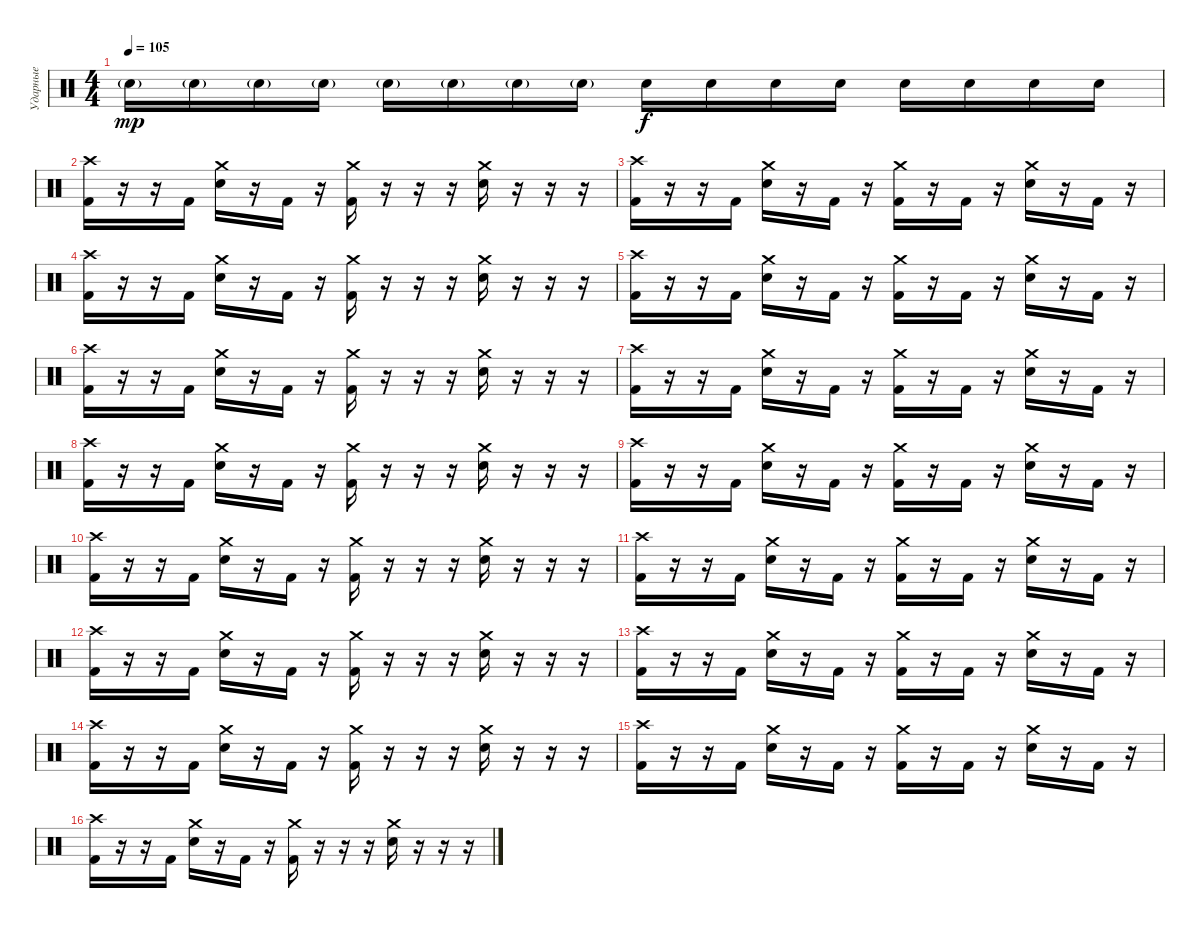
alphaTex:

\track ("Ударные" "Ударные") {instrument percussion}
\staff {score}
\articulation defaults
\ts (4 4)
\tempo 105
\clef neutral
\ks c "Electric Snare (hit)"{g}.16{dy mp} "Electric Snare (hit)"{g}.16 "Electric Snare (hit)"{g}.16 "Electric Snare (hit)"{g}.16 "Electric Snare (hit)"{g}.16 "Electric Snare (hit)"{g}.16 "Electric Snare (hit)"{g}.16 "Electric Snare (hit)"{g}.16 "Electric Snare (hit)".16{dy f} "Electric Snare (hit)".16 "Electric Snare (hit)".16 "Electric Snare (hit)".16 "Electric Snare (hit)".16 "Electric Snare (hit)".16 "Electric Snare (hit)".16 "Electric Snare (hit)".16
|
("Crash high (hit)" "Kick (hit) 2").16 r.16 r.16 "Kick (hit) 2".16 ("Crash medium (hit)" "Electric Snare (hit)").16 r.16 "Kick (hit) 2".16 r.16 ("Crash medium (hit)" "Kick (hit) 2").16 r.16 r.16 r.16 ("Crash medium (hit)" "Electric Snare (hit)").16 r.16 r.16 r.16 |
("Crash high (hit)" "Kick (hit) 2").16 r.16 r.16 "Kick (hit) 2".16 ("Crash medium (hit)" "Electric Snare (hit)").16 r.16 "Kick (hit) 2".16 r.16 ("Crash medium (hit)" "Kick (hit) 2").16 r.16 "Kick (hit) 2".16 r.16 ("Crash medium (hit)" "Electric Snare (hit)").16 r.16 "Kick (hit) 2".16 r.16 |
("Crash high (hit)" "Kick (hit) 2").16 r.16 r.16 "Kick (hit) 2".16 ("Crash medium (hit)" "Electric Snare (hit)").16 r.16 "Kick (hit) 2".16 r.16 ("Crash medium (hit)" "Kick (hit) 2").16 r.16 r.16 r.16 ("Crash medium (hit)" "Electric Snare (hit)").16 r.16 r.16 r.16 |
("Crash high (hit)" "Kick (hit) 2").16 r.16 r.16 "Kick (hit) 2".16 ("Crash medium (hit)" "Electric Snare (hit)").16 r.16 "Kick (hit) 2".16 r.16 ("Crash medium (hit)" "Kick (hit) 2").16 r.16 "Kick (hit) 2".16 r.16 ("Crash medium (hit)" "Electric Snare (hit)").16 r.16 "Kick (hit) 2".16 r.16 |
("Crash high (hit)" "Kick (hit) 2").16 r.16 r.16 "Kick (hit) 2".16 ("Crash medium (hit)" "Electric Snare (hit)").16 r.16 "Kick (hit) 2".16 r.16 ("Crash medium (hit)" "Kick (hit) 2").16 r.16 r.16 r.16 ("Crash medium (hit)" "Electric Snare (hit)").16 r.16 r.16 r.16 |
("Crash high (hit)" "Kick (hit) 2").16 r.16 r.16 "Kick (hit) 2".16 ("Crash medium (hit)" "Electric Snare (hit)").16 r.16 "Kick (hit) 2".16 r.16 ("Crash medium (hit)" "Kick (hit) 2").16 r.16 "Kick (hit) 2".16 r.16 ("Crash medium (hit)" "Electric Snare (hit)").16 r.16 "Kick (hit) 2".16 r.16 |
("Crash high (hit)" "Kick (hit) 2").16 r.16 r.16 "Kick (hit) 2".16 ("Crash medium (hit)" "Electric Snare (hit)").16 r.16 "Kick (hit) 2".16 r.16 ("Crash medium (hit)" "Kick (hit) 2").16 r.16 r.16 r.16 ("Crash medium (hit)" "Electric Snare (hit)").16 r.16 r.16 r.16 |
("Crash high (hit)" "Kick (hit) 2").16 r.16 r.16 "Kick (hit) 2".16 ("Crash medium (hit)" "Electric Snare (hit)").16 r.16 "Kick (hit) 2".16 r.16 ("Crash medium (hit)" "Kick (hit) 2").16 r.16 "Kick (hit) 2".16 r.16 ("Crash medium (hit)" "Electric Snare (hit)").16 r.16 "Kick (hit) 2".16 r.16 |
("Crash high (hit)" "Kick (hit) 2").16 r.16 r.16 "Kick (hit) 2".16 ("Crash medium (hit)" "Electric Snare (hit)").16 r.16 "Kick (hit) 2".16 r.16 ("Crash medium (hit)" "Kick (hit) 2").16 r.16 r.16 r.16 ("Crash medium (hit)" "Electric Snare (hit)").16 r.16 r.16 r.16 |
("Crash high (hit)" "Kick (hit) 2").16 r.16 r.16 "Kick (hit) 2".16 ("Crash medium (hit)" "Electric Snare (hit)").16 r.16 "Kick (hit) 2".16 r.16 ("Crash medium (hit)" "Kick (hit) 2").16 r.16 "Kick (hit) 2".16 r.16 ("Crash medium (hit)" "Electric Snare (hit)").16 r.16 "Kick (hit) 2".16 r.16 |
("Crash high (hit)" "Kick (hit) 2").16 r.16 r.16 "Kick (hit) 2".16 ("Crash medium (hit)" "Electric Snare (hit)").16 r.16 "Kick (hit) 2".16 r.16 ("Crash medium (hit)" "Kick (hit) 2").16 r.16 r.16 r.16 ("Crash medium (hit)" "Electric Snare (hit)").16 r.16 r.16 r.16 |
("Crash high (hit)" "Kick (hit) 2").16 r.16 r.16 "Kick (hit) 2".16 ("Crash medium (hit)" "Electric Snare (hit)").16 r.16 "Kick (hit) 2".16 r.16 ("Crash medium (hit)" "Kick (hit) 2").16 r.16 "Kick (hit) 2".16 r.16 ("Crash medium (hit)" "Electric Snare (hit)").16 r.16 "Kick (hit) 2".16 r.16 |
("Crash high (hit)" "Kick (hit) 2").16 r.16 r.16 "Kick (hit) 2".16 ("Crash medium (hit)" "Electric Snare (hit)").16 r.16 "Kick (hit) 2".16 r.16 ("Crash medium (hit)" "Kick (hit) 2").16 r.16 r.16 r.16 ("Crash medium (hit)" "Electric Snare (hit)").16 r.16 r.16 r.16 |
("Crash high (hit)" "Kick (hit) 2").16 r.16 r.16 "Kick (hit) 2".16 ("Crash medium (hit)" "Electric Snare (hit)").16 r.16 "Kick (hit) 2".16 r.16 ("Crash medium (hit)" "Kick (hit) 2").16 r.16 "Kick (hit) 2".16 r.16 ("Crash medium (hit)" "Electric Snare (hit)").16 r.16 "Kick (hit) 2".16 r.16 |
("Crash high (hit)" "Kick (hit) 2").16 r.16 r.16 "Kick (hit) 2".16 ("Crash medium (hit)" "Electric Snare (hit)").16 r.16 "Kick (hit) 2".16 r.16 ("Crash medium (hit)" "Kick (hit) 2").16 r.16 r.16 r.16 ("Crash medium (hit)" "Electric Snare (hit)").16 r.16 r.16 r.16
